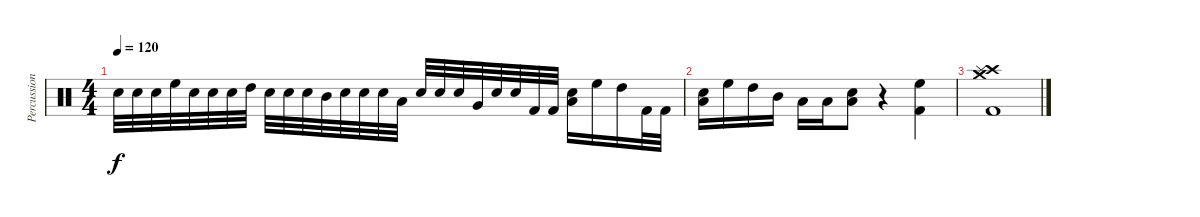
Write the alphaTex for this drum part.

\track ("Percussion" "Percussion") {instrument percussion}
\staff {score}
\articulation defaults
\ts (4 4)
\tempo 120
\clef neutral
\ks c "Electric Snare (hit)".32{dy f} "Electric Snare (hit)".32 "Electric Snare (hit)".32 "High Floor Tom (hit)".32 "Electric Snare (hit)".32 "Electric Snare (hit)".32 "Electric Snare (hit)".32 "High Tom (hit)".32 "Electric Snare (hit)".32 "Electric Snare (hit)".32 "Electric Snare (hit)".32 "Mid Tom (hit)".32 "Electric Snare (hit)".32 "Electric Snare (hit)".32 "Electric Snare (hit)".32 "Low Tom (hit)".32 "Electric Snare (hit)".32 "Electric Snare (hit)".32 "Electric Snare (hit)".32 "Very Low Tom (hit)".32 "Electric Snare (hit)".32 "Electric Snare (hit)".32 "Kick (hit) 2".32 "Kick (hit) 2".32
("Electric Snare (hit)" "Low Floor Tom (hit)").16 "High Floor Tom (hit)".16 "High Tom (hit)".16 "Kick (hit) 2".32 "Kick (hit) 2".32 |
("Electric Snare (hit)" "Low Floor Tom (hit)").16 "High Floor Tom (hit)".16 "High Tom (hit)".16 "Mid Tom (hit)".16 "Low Tom (hit)".16 "Low Floor Tom (hit)".16 ("Electric Snare (hit)" "Low Floor Tom (hit)").8 r.4 ("High Floor Tom (hit)" "Kick (hit) 2").4 |
("Crash medium (hit)" "Crash high (hit)" "Splash (hit)" "Kick (hit) 2").1
